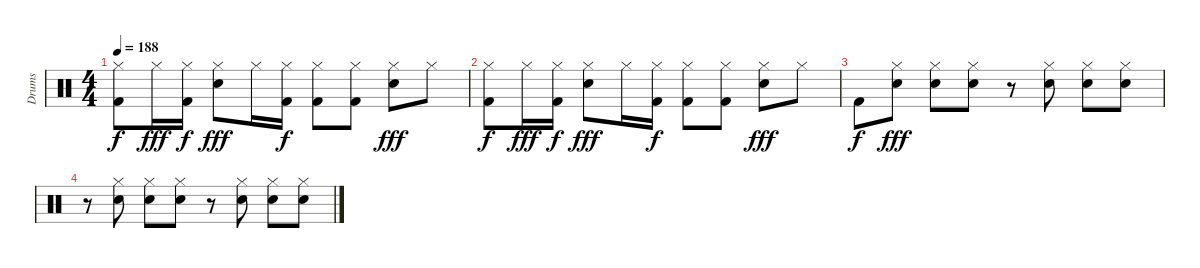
\track ("Drums" "Drums") {instrument percussion}
\staff {score}
\articulation defaults
\ts (4 4)
\tempo 188
\clef neutral
\ks c
("Hi-Hat (closed)" "Kick (hit) 2").8{dy f} "Hi-Hat (closed)".16{dy fff} ("Hi-Hat (closed)" "Kick (hit) 2").16{dy f} ("Hi-Hat (closed)" "Snare (hit) 2").8{dy fff} "Hi-Hat (closed)".16 ("Hi-Hat (closed)" "Kick (hit) 2").16{dy f} ("Hi-Hat (closed)" "Kick (hit) 2").8 ("Hi-Hat (closed)" "Kick (hit) 2").8 ("Hi-Hat (closed)" "Snare (hit) 2").8{dy fff} "Hi-Hat (closed)".8 |
("Hi-Hat (closed)" "Kick (hit) 2").8{dy f} "Hi-Hat (closed)".16{dy fff} ("Hi-Hat (closed)" "Kick (hit) 2").16{dy f} ("Hi-Hat (closed)" "Snare (hit) 2").8{dy fff} "Hi-Hat (closed)".16 ("Hi-Hat (closed)" "Kick (hit) 2").16{dy f} ("Hi-Hat (closed)" "Kick (hit) 2").8 ("Hi-Hat (closed)" "Kick (hit) 2").8 ("Hi-Hat (closed)" "Snare (hit) 2").8{dy fff} "Hi-Hat (closed)".8 |
"Kick (hit) 2".8{dy f} ("Hi-Hat (closed)" "Snare (hit) 2").8{dy fff} ("Hi-Hat (closed)" "Snare (hit) 2").8 ("Hi-Hat (closed)" "Snare (hit) 2").8 r.8 ("Hi-Hat (closed)" "Snare (hit) 2").8 ("Hi-Hat (closed)" "Snare (hit) 2").8 ("Hi-Hat (closed)" "Snare (hit) 2").8 |
r.8 ("Hi-Hat (closed)" "Snare (hit) 2").8 ("Hi-Hat (closed)" "Snare (hit) 2").8 ("Hi-Hat (closed)" "Snare (hit) 2").8 r.8 ("Hi-Hat (closed)" "Snare (hit) 2").8 ("Hi-Hat (closed)" "Snare (hit) 2").8 ("Hi-Hat (closed)" "Snare (hit) 2").8
